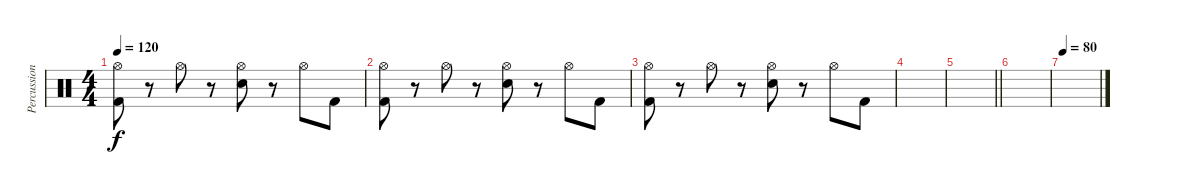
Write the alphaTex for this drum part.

\track ("Percussion" "Percussion") {instrument percussion}
\staff {score}
\articulation defaults
\ts (4 4)
\tempo 120
\clef neutral
\ks c
("Hi-Hat (open)" "Kick (hit) 2").8{dy f} r.8 "Hi-Hat (open)".8 r.8 ("Hi-Hat (open)" "Snare (hit) 2").8 r.8 "Hi-Hat (open)".8 "Kick (hit) 2".8 |
("Hi-Hat (open)" "Kick (hit) 2").8 r.8 "Hi-Hat (open)".8 r.8 ("Hi-Hat (open)" "Snare (hit) 2").8 r.8 "Hi-Hat (open)".8 "Kick (hit) 2".8 |
("Hi-Hat (open)" "Kick (hit) 2").8 r.8 "Hi-Hat (open)".8 r.8 ("Hi-Hat (open)" "Snare (hit) 2").8 r.8 "Hi-Hat (open)".8 "Kick (hit) 2".8 |
|
\barLineRight lightlight
|
|
\tempo 80
